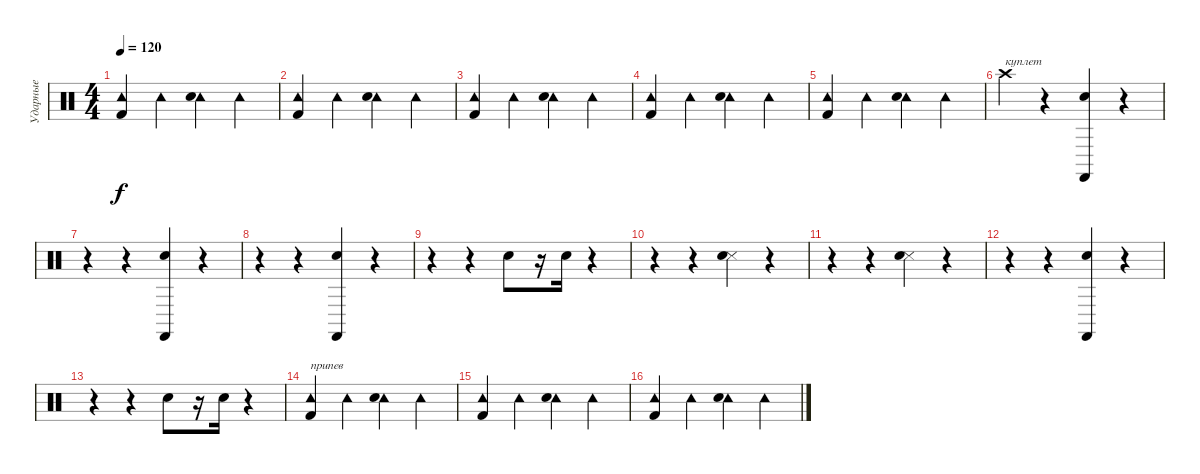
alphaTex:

\track ("Ударные" "Ударные") {instrument percussion}
\staff {score}
\articulation defaults
\ts (4 4)
\tempo 120
\clef neutral
\ks c
("Tambourine (hit)" "Kick (hit) 2").4{dy f} "Tambourine (hit)".4 ("Tambourine (hit)" "Electric Snare (hit)").4 "Tambourine (hit)".4 |
("Tambourine (hit)" "Kick (hit) 2").4 "Tambourine (hit)".4 ("Tambourine (hit)" "Electric Snare (hit)").4 "Tambourine (hit)".4 |
("Tambourine (hit)" "Kick (hit) 2").4 "Tambourine (hit)".4 ("Tambourine (hit)" "Electric Snare (hit)").4 "Tambourine (hit)".4 |
("Tambourine (hit)" "Kick (hit) 2").4 "Tambourine (hit)".4 ("Tambourine (hit)" "Electric Snare (hit)").4 "Tambourine (hit)".4 |
("Tambourine (hit)" "Kick (hit) 2").4 "Tambourine (hit)".4 ("Tambourine (hit)" "Electric Snare (hit)").4 "Tambourine (hit)".4 |
"Crash high (hit)".4{txt "куплет"} r.4 ("Castanets (hit)" "Metronome (bell)").4 r.4 |
r.4 r.4 ("Castanets (hit)" "Metronome (bell)").4 r.4 |
r.4 r.4 ("Castanets (hit)" "Metronome (bell)").4 r.4 |
r.4 r.4 "Metronome (bell)".8 r.16 "Metronome (bell)".16 r.4 |
r.4 r.4 ("Metronome (hit)" "Metronome (bell)").4 r.4 |
r.4 r.4 ("Metronome (hit)" "Metronome (bell)").4 r.4 |
r.4 r.4 ("Castanets (hit)" "Metronome (bell)").4 r.4 |
r.4 r.4 "Metronome (bell)".8 r.16 "Metronome (bell)".16 r.4 |
("Tambourine (hit)" "Kick (hit) 2").4{txt "припев"} "Tambourine (hit)".4 ("Tambourine (hit)" "Electric Snare (hit)").4 "Tambourine (hit)".4 |
("Tambourine (hit)" "Kick (hit) 2").4 "Tambourine (hit)".4 ("Tambourine (hit)" "Electric Snare (hit)").4 "Tambourine (hit)".4 |
("Tambourine (hit)" "Kick (hit) 2").4 "Tambourine (hit)".4 ("Tambourine (hit)" "Electric Snare (hit)").4 "Tambourine (hit)".4
